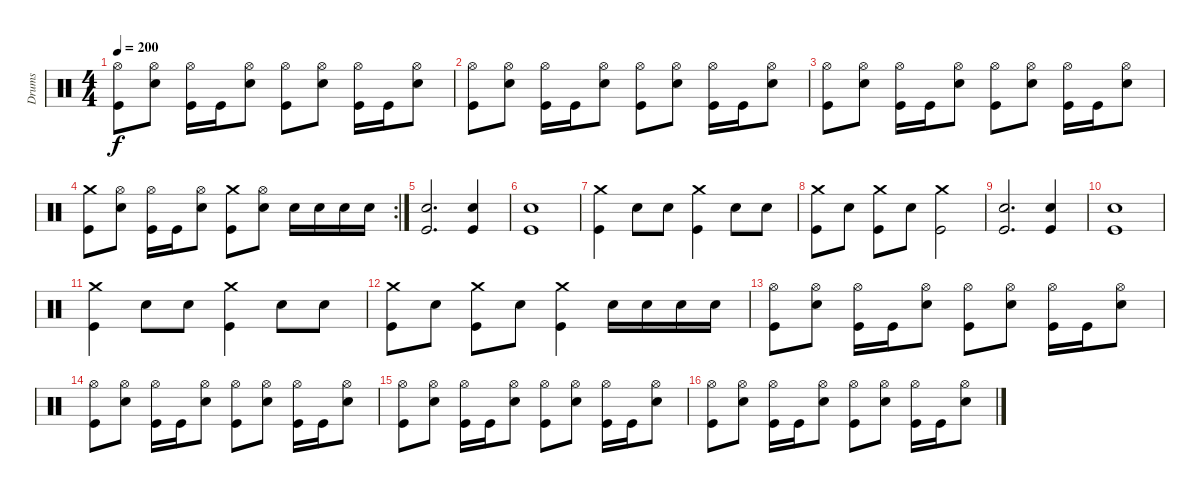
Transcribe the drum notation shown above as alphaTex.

\track ("Drums" "Drums") {instrument percussion}
\staff {score}
\articulation defaults
\ts (4 4)
\tempo 200
\clef neutral
\ks c
("Hi-Hat (open)" "Kick (hit)").8{dy f} ("Hi-Hat (open)" "Snare (hit) 2").8 ("Hi-Hat (open)" "Kick (hit)").16 "Kick (hit)".16 ("Hi-Hat (open)" "Snare (hit) 2").8 ("Hi-Hat (open)" "Kick (hit)").8 ("Hi-Hat (open)" "Snare (hit) 2").8 ("Hi-Hat (open)" "Kick (hit)").16 "Kick (hit)".16 ("Hi-Hat (open)" "Snare (hit) 2").8 |
("Hi-Hat (open)" "Kick (hit)").8 ("Hi-Hat (open)" "Snare (hit) 2").8 ("Hi-Hat (open)" "Kick (hit)").16 "Kick (hit)".16 ("Hi-Hat (open)" "Snare (hit) 2").8 ("Hi-Hat (open)" "Kick (hit)").8 ("Hi-Hat (open)" "Snare (hit) 2").8 ("Hi-Hat (open)" "Kick (hit)").16 "Kick (hit)".16 ("Hi-Hat (open)" "Snare (hit) 2").8 |
("Hi-Hat (open)" "Kick (hit)").8 ("Hi-Hat (open)" "Snare (hit) 2").8 ("Hi-Hat (open)" "Kick (hit)").16 "Kick (hit)".16 ("Hi-Hat (open)" "Snare (hit) 2").8 ("Hi-Hat (open)" "Kick (hit)").8 ("Hi-Hat (open)" "Snare (hit) 2").8 ("Hi-Hat (open)" "Kick (hit)").16 "Kick (hit)".16 ("Hi-Hat (open)" "Snare (hit) 2").8 |
\rc 2
("Crash medium (hit)" "Kick (hit)").8 ("Hi-Hat (open)" "Snare (hit) 2").8 ("Hi-Hat (open)" "Kick (hit)").16 "Kick (hit)".16 ("Hi-Hat (open)" "Snare (hit) 2").8 ("Crash medium (hit)" "Kick (hit)").8 ("Hi-Hat (open)" "Snare (hit) 2").8 "Snare (hit) 2".16 "Snare (hit) 2".16 "Snare (hit) 2".16 "Snare (hit) 2".16 |
("Snare (hit) 2" "Kick (hit)").2{d} ("Snare (hit) 2" "Kick (hit)").4 |
("Snare (hit) 2" "Kick (hit)").1 |
("Crash medium (hit)" "Kick (hit)").4 "Snare (hit) 2".8 "Snare (hit) 2".8 ("Crash medium (hit)" "Kick (hit)").4 "Snare (hit) 2".8 "Snare (hit) 2".8 |
("Crash medium (hit)" "Kick (hit)").8 "Snare (hit) 2".8 ("Crash medium (hit)" "Kick (hit)").8 "Snare (hit) 2".8 ("Crash medium (hit)" "Kick (hit)").2 |
("Snare (hit) 2" "Kick (hit)").2{d} ("Snare (hit) 2" "Kick (hit)").4 |
("Snare (hit) 2" "Kick (hit)").1 |
("Crash medium (hit)" "Kick (hit)").4 "Snare (hit) 2".8 "Snare (hit) 2".8 ("Crash medium (hit)" "Kick (hit)").4 "Snare (hit) 2".8 "Snare (hit) 2".8 |
("Crash medium (hit)" "Kick (hit)").8 "Snare (hit) 2".8 ("Crash medium (hit)" "Kick (hit)").8 "Snare (hit) 2".8 ("Crash medium (hit)" "Kick (hit)").4 "Snare (hit) 2".16 "Snare (hit) 2".16 "Snare (hit) 2".16 "Snare (hit) 2".16 |
("Hi-Hat (open)" "Kick (hit)").8 ("Hi-Hat (open)" "Snare (hit) 2").8 ("Hi-Hat (open)" "Kick (hit)").16 "Kick (hit)".16 ("Hi-Hat (open)" "Snare (hit) 2").8 ("Hi-Hat (open)" "Kick (hit)").8 ("Hi-Hat (open)" "Snare (hit) 2").8 ("Hi-Hat (open)" "Kick (hit)").16 "Kick (hit)".16 ("Hi-Hat (open)" "Snare (hit) 2").8 |
("Hi-Hat (open)" "Kick (hit)").8 ("Hi-Hat (open)" "Snare (hit) 2").8 ("Hi-Hat (open)" "Kick (hit)").16 "Kick (hit)".16 ("Hi-Hat (open)" "Snare (hit) 2").8 ("Hi-Hat (open)" "Kick (hit)").8 ("Hi-Hat (open)" "Snare (hit) 2").8 ("Hi-Hat (open)" "Kick (hit)").16 "Kick (hit)".16 ("Hi-Hat (open)" "Snare (hit) 2").8 |
("Hi-Hat (open)" "Kick (hit)").8 ("Hi-Hat (open)" "Snare (hit) 2").8 ("Hi-Hat (open)" "Kick (hit)").16 "Kick (hit)".16 ("Hi-Hat (open)" "Snare (hit) 2").8 ("Hi-Hat (open)" "Kick (hit)").8 ("Hi-Hat (open)" "Snare (hit) 2").8 ("Hi-Hat (open)" "Kick (hit)").16 "Kick (hit)".16 ("Hi-Hat (open)" "Snare (hit) 2").8 |
("Hi-Hat (open)" "Kick (hit)").8 ("Hi-Hat (open)" "Snare (hit) 2").8 ("Hi-Hat (open)" "Kick (hit)").16 "Kick (hit)".16 ("Hi-Hat (open)" "Snare (hit) 2").8 ("Hi-Hat (open)" "Kick (hit)").8 ("Hi-Hat (open)" "Snare (hit) 2").8 ("Hi-Hat (open)" "Kick (hit)").16 "Kick (hit)".16 ("Hi-Hat (open)" "Snare (hit) 2").8
